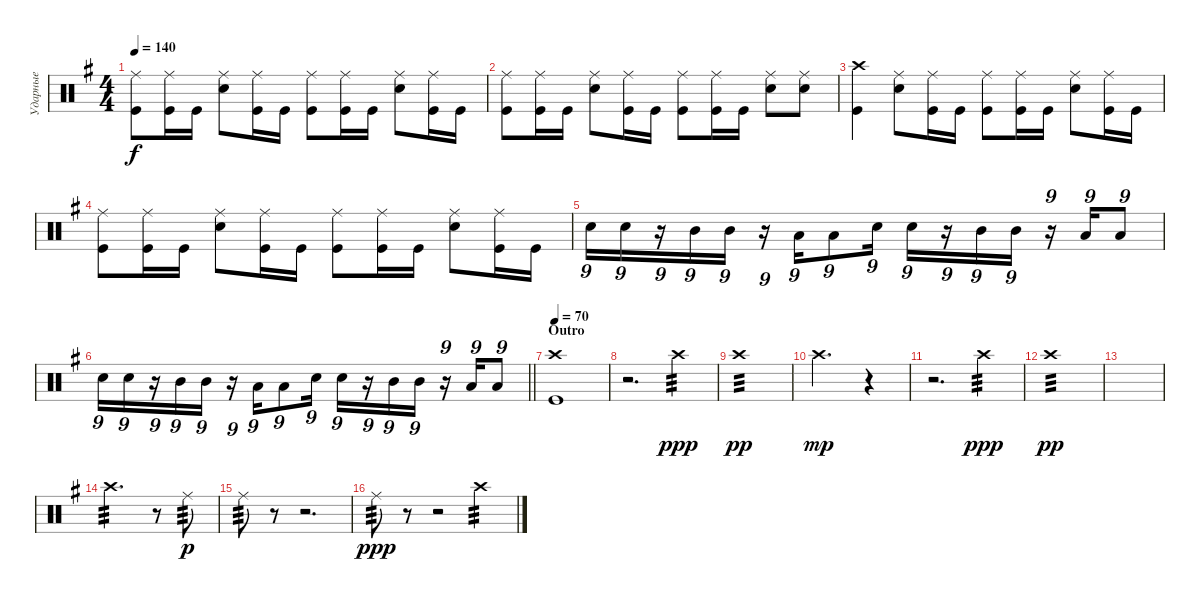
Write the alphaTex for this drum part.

\track ("Ударные" "Ударные") {instrument percussion}
\staff {score}
\articulation defaults
\ts (4 4)
\tempo 140
\clef neutral
\ks eminor
("Kick (hit)" "Ride (middle)").8{dy f} ("Kick (hit)" "Ride (middle)").16 "Kick (hit)".16 ("Snare (hit) 2" "Ride (middle)").8 ("Kick (hit)" "Ride (middle)").16 "Kick (hit)".16 ("Kick (hit)" "Ride (middle)").8 ("Kick (hit)" "Ride (middle)").16 "Kick (hit)".16 ("Snare (hit) 2" "Ride (middle)").8 ("Kick (hit)" "Ride (middle)").16 "Kick (hit)".16 |
("Kick (hit)" "Ride (middle)").8 ("Kick (hit)" "Ride (middle)").16 "Kick (hit)".16 ("Snare (hit) 2" "Ride (middle)").8 ("Kick (hit)" "Ride (middle)").16 "Kick (hit)".16 ("Kick (hit)" "Ride (middle)").8 ("Kick (hit)" "Ride (middle)").16 "Kick (hit)".16 ("Snare (hit) 2" "Ride (middle)").8 ("Snare (hit) 2" "Ride (middle)").8 |
("Kick (hit)" "Crash high (hit)").4 ("Snare (hit) 2" "Ride (middle)").8 ("Kick (hit)" "Ride (middle)").16 "Kick (hit)".16 ("Kick (hit)" "Ride (middle)").8 ("Kick (hit)" "Ride (middle)").16 "Kick (hit)".16 ("Snare (hit) 2" "Ride (middle)").8 ("Kick (hit)" "Ride (middle)").16 "Kick (hit)".16 |
("Kick (hit)" "Ride (middle)").8 ("Kick (hit)" "Ride (middle)").16 "Kick (hit)".16 ("Snare (hit) 2" "Ride (middle)").8 ("Kick (hit)" "Ride (middle)").16 "Kick (hit)".16 ("Kick (hit)" "Ride (middle)").8 ("Kick (hit)" "Ride (middle)").16 "Kick (hit)".16 ("Snare (hit) 2" "Ride (middle)").8 ("Kick (hit)" "Ride (middle)").16 "Kick (hit)".16 |
"Snare (hit) 2".16{tu (9 8)} "Snare (hit) 2".16{tu (9 8)} r.16{tu (9 8)} "Mid Tom (hit)".16{tu (9 8)} "Mid Tom (hit)".16{tu (9 8)} r.16{tu (9 8)} "Low Tom (hit)".16{tu (9 8)} "Low Tom (hit)".8{tu (9 8)} "Snare (hit) 2".16{tu (9 8)} "Snare (hit) 2".16{tu (9 8)} r.16{tu (9 8)} "Mid Tom (hit)".16{tu (9 8)} "Mid Tom (hit)".16{tu (9 8)} r.16{tu (9 8)} "Low Tom (hit)".16{tu (9 8)} "Low Tom (hit)".8{tu (9 8)} |
\barLineRight lightlight "Snare (hit) 2".16{tu (9 8)} "Snare (hit) 2".16{tu (9 8)}
r.16{tu (9 8)} "Mid Tom (hit)".16{tu (9 8)} "Mid Tom (hit)".16{tu (9 8)} r.16{tu (9 8)} "Low Tom (hit)".16{tu (9 8)} "Low Tom (hit)".8{tu (9 8)} "Snare (hit) 2".16{tu (9 8)} "Snare (hit) 2".16{tu (9 8)} r.16{tu (9 8)} "Mid Tom (hit)".16{tu (9 8)} "Mid Tom (hit)".16{tu (9 8)} r.16{tu (9 8)} "Low Tom (hit)".16{tu (9 8)} "Low Tom (hit)".8{tu (9 8)} |
\section ("" "Outro")
\tempo 70
("Kick (hit)" "Crash high (hit)").1 |
r.2{d} "Crash high (hit)".4{tp 3 dy ppp} |
"Crash high (hit)".1{tp 3 dy pp} |
"Crash high (hit)".2{d dy mp} r.4 |
r.2{d} "Crash high (hit)".4{tp 3 dy ppp} |
"Crash high (hit)".1{tp 3 dy pp} |
|
"Crash high (hit)".2{d tp 3} r.8 "Ride (middle)".8{tp 3 dy p} |
"Ride (middle)".8{tp 3} r.8 r.2{d} |
"Ride (middle)".8{tp 3 dy ppp} r.8 r.2 "Crash high (hit)".4{tp 3}
